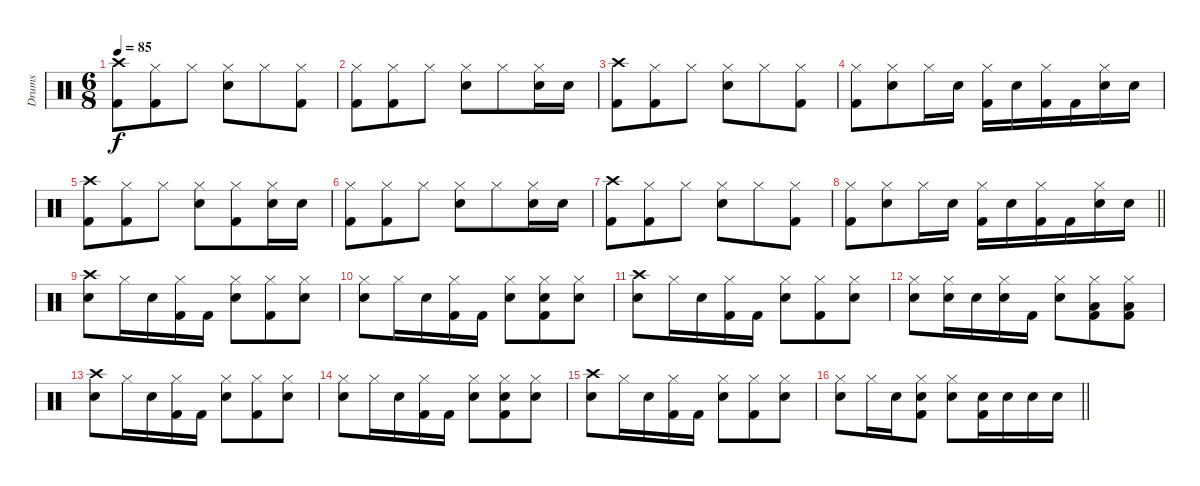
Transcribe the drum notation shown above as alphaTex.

\track ("Drums" "Drums") {instrument percussion}
\staff {score}
\articulation defaults
\ts (6 8)
\tempo 85
\clef neutral
\ks c
("Crash high (hit)" "Kick (hit) 2").8{dy f} ("Hi-Hat (closed)" "Kick (hit) 2").8 "Hi-Hat (closed)".8 ("Hi-Hat (closed)" "Snare (hit) 2").8 "Hi-Hat (closed)".8 ("Hi-Hat (closed)" "Kick (hit) 2").8 |
("Hi-Hat (closed)" "Kick (hit) 2").8 ("Hi-Hat (closed)" "Kick (hit) 2").8 "Hi-Hat (closed)".8 ("Hi-Hat (closed)" "Snare (hit) 2").8 "Hi-Hat (closed)".8 ("Hi-Hat (closed)" "Snare (hit) 2").16 "Snare (hit) 2".16 |
("Crash high (hit)" "Kick (hit) 2").8 ("Hi-Hat (closed)" "Kick (hit) 2").8 "Hi-Hat (closed)".8 ("Hi-Hat (closed)" "Snare (hit) 2").8 "Hi-Hat (closed)".8 ("Hi-Hat (closed)" "Kick (hit) 2").8 |
("Hi-Hat (closed)" "Kick (hit) 2").8 ("Hi-Hat (closed)" "Snare (hit) 2").8 "Hi-Hat (closed)".16 "Snare (hit) 2".16 ("Hi-Hat (closed)" "Kick (hit) 2").16 "Snare (hit) 2".16 ("Hi-Hat (closed)" "Kick (hit) 2").16 "Kick (hit) 2".16 ("Hi-Hat (closed)" "Snare (hit) 2").16 "Snare (hit) 2".16 |
("Crash high (hit)" "Kick (hit) 2").8 ("Hi-Hat (closed)" "Kick (hit) 2").8 "Hi-Hat (closed)".8 ("Hi-Hat (closed)" "Snare (hit) 2").8 ("Hi-Hat (closed)" "Kick (hit) 2").8 ("Hi-Hat (closed)" "Snare (hit) 2").16 "Snare (hit) 2".16 |
("Hi-Hat (closed)" "Kick (hit) 2").8 ("Hi-Hat (closed)" "Kick (hit) 2").8 "Hi-Hat (closed)".8 ("Hi-Hat (closed)" "Snare (hit) 2").8 "Hi-Hat (closed)".8 ("Hi-Hat (closed)" "Snare (hit) 2").16 "Snare (hit) 2".16 |
("Crash high (hit)" "Kick (hit) 2").8 ("Hi-Hat (closed)" "Kick (hit) 2").8 "Hi-Hat (closed)".8 ("Hi-Hat (closed)" "Snare (hit) 2").8 "Hi-Hat (closed)".8 ("Hi-Hat (closed)" "Kick (hit) 2").8 |
\barLineRight lightlight
("Hi-Hat (closed)" "Kick (hit) 2").8 ("Hi-Hat (closed)" "Snare (hit) 2").8 "Hi-Hat (closed)".16 "Snare (hit) 2".16 ("Hi-Hat (closed)" "Kick (hit) 2").16 "Snare (hit) 2".16 ("Hi-Hat (closed)" "Kick (hit) 2").16 "Kick (hit) 2".16 ("Hi-Hat (closed)" "Snare (hit) 2").16 "Snare (hit) 2".16 |
("Crash high (hit)" "Snare (hit) 2").8 "Hi-Hat (closed)".16 "Snare (hit) 2".16 ("Hi-Hat (closed)" "Kick (hit) 2").16 "Kick (hit) 2".16 ("Hi-Hat (closed)" "Snare (hit) 2").8 ("Hi-Hat (closed)" "Kick (hit) 2").8 ("Hi-Hat (closed)" "Snare (hit) 2").8 |
("Hi-Hat (closed)" "Snare (hit) 2").8 "Hi-Hat (closed)".16 "Snare (hit) 2".16 ("Hi-Hat (closed)" "Kick (hit) 2").16 "Kick (hit) 2".16 ("Hi-Hat (closed)" "Snare (hit) 2").8 ("Hi-Hat (closed)" "Snare (hit) 2" "Kick (hit) 2").8 ("Hi-Hat (closed)" "Snare (hit) 2").8 |
("Crash high (hit)" "Snare (hit) 2").8 "Hi-Hat (closed)".16 "Snare (hit) 2".16 ("Hi-Hat (closed)" "Kick (hit) 2").16 "Kick (hit) 2".16 ("Hi-Hat (closed)" "Snare (hit) 2").8 ("Hi-Hat (closed)" "Kick (hit) 2").8 ("Hi-Hat (closed)" "Snare (hit) 2").8 |
("Hi-Hat (closed)" "Snare (hit) 2").8 ("Hi-Hat (closed)" "Snare (hit) 2").16 "Snare (hit) 2".16 ("Hi-Hat (closed)" "Snare (hit) 2").16 "Kick (hit) 2".16 ("Hi-Hat (closed)" "Snare (hit) 2").8 ("Hi-Hat (closed)" "Low Floor Tom (hit)" "Kick (hit) 2").8 ("Hi-Hat (closed)" "Low Floor Tom (hit)" "Kick (hit) 2").8 |
("Crash high (hit)" "Snare (hit) 2").8 "Hi-Hat (closed)".16 "Snare (hit) 2".16 ("Hi-Hat (closed)" "Kick (hit) 2").16 "Kick (hit) 2".16 ("Hi-Hat (closed)" "Snare (hit) 2").8 ("Hi-Hat (closed)" "Kick (hit) 2").8 ("Hi-Hat (closed)" "Snare (hit) 2").8 |
("Hi-Hat (closed)" "Snare (hit) 2").8 "Hi-Hat (closed)".16 "Snare (hit) 2".16 ("Hi-Hat (closed)" "Kick (hit) 2").16 "Kick (hit) 2".16 ("Hi-Hat (closed)" "Snare (hit) 2").8 ("Hi-Hat (closed)" "Snare (hit) 2" "Kick (hit) 2").8 ("Hi-Hat (closed)" "Snare (hit) 2").8 |
("Crash high (hit)" "Snare (hit) 2").8 "Hi-Hat (closed)".16 "Snare (hit) 2".16 ("Hi-Hat (closed)" "Kick (hit) 2").16 "Kick (hit) 2".16 ("Hi-Hat (closed)" "Snare (hit) 2").8 ("Hi-Hat (closed)" "Kick (hit) 2").8 ("Hi-Hat (closed)" "Snare (hit) 2").8 |
\barLineRight lightlight
("Hi-Hat (closed)" "Snare (hit) 2").8 "Hi-Hat (closed)".16 "Snare (hit) 2".16 ("Hi-Hat (closed)" "Snare (hit) 2" "Kick (hit) 2").8 ("Hi-Hat (closed)" "Snare (hit) 2").8 ("Snare (hit) 2" "Kick (hit) 2").16 "Snare (hit) 2".16 "Snare (hit) 2".16 "Snare (hit) 2".16
